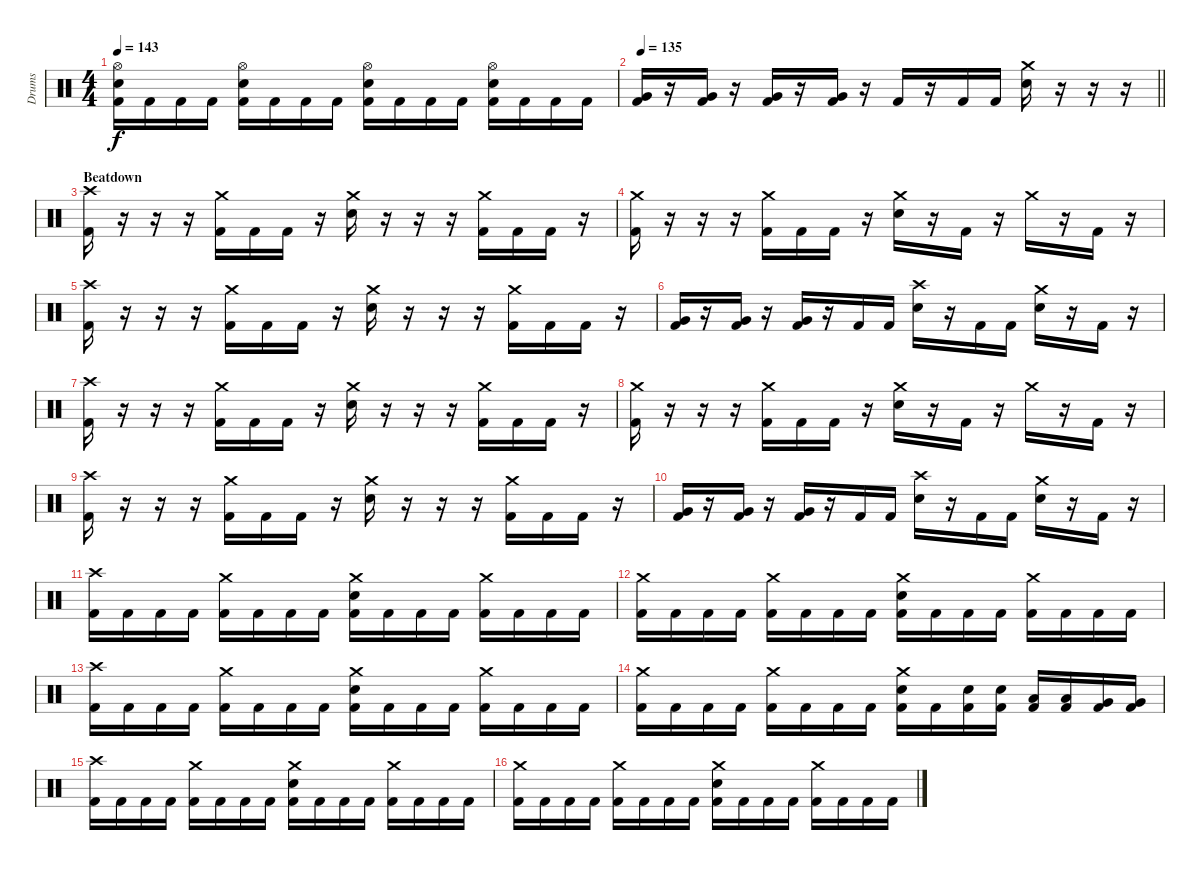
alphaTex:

\track ("Drums" "Drums") {instrument percussion}
\staff {score}
\articulation defaults
\ts (4 4)
\tempo 143
\clef neutral
\ks c
("Hi-Hat (open)" "Electric Snare (hit)" "Kick (hit) 2").16{dy f} "Kick (hit) 2".16 "Kick (hit) 2".16 "Kick (hit) 2".16 ("Hi-Hat (open)" "Electric Snare (hit)" "Kick (hit) 2").16 "Kick (hit) 2".16 "Kick (hit) 2".16 "Kick (hit) 2".16 ("Hi-Hat (open)" "Electric Snare (hit)" "Kick (hit) 2").16 "Kick (hit) 2".16 "Kick (hit) 2".16 "Kick (hit) 2".16 ("Hi-Hat (open)" "Electric Snare (hit)" "Kick (hit) 2").16 "Kick (hit) 2".16 "Kick (hit) 2".16 "Kick (hit) 2".16 |
\tempo 135
\barLineRight lightlight
("Very Low Tom (hit)" "Kick (hit) 2").16 r.16 ("Very Low Tom (hit)" "Kick (hit) 2").16 r.16 ("Very Low Tom (hit)" "Kick (hit) 2").16 r.16 ("Very Low Tom (hit)" "Kick (hit) 2").16 r.16 "Kick (hit) 2".16 r.16 "Kick (hit) 2".16 "Kick (hit) 2".16 ("Crash medium (hit)" "Electric Snare (hit)").16 r.16 r.16 r.16 |
\section ("" "Beatdown")
("Crash high (hit)" "Kick (hit) 2").16 r.16 r.16 r.16 ("Crash medium (hit)" "Kick (hit) 2").16 "Kick (hit) 2".16 "Kick (hit) 2".16 r.16 ("Crash medium (hit)" "Electric Snare (hit)").16 r.16 r.16 r.16 ("Crash medium (hit)" "Kick (hit) 2").16 "Kick (hit) 2".16 "Kick (hit) 2".16 r.16 |
("Crash medium (hit)" "Kick (hit) 2").16 r.16 r.16 r.16 ("Crash medium (hit)" "Kick (hit) 2").16 "Kick (hit) 2".16 "Kick (hit) 2".16 r.16 ("Crash medium (hit)" "Electric Snare (hit)").16 r.16 "Kick (hit) 2".16 r.16 "Crash medium (hit)".16 r.16 "Kick (hit) 2".16 r.16 |
("Crash high (hit)" "Kick (hit) 2").16 r.16 r.16 r.16 ("Crash medium (hit)" "Kick (hit) 2").16 "Kick (hit) 2".16 "Kick (hit) 2".16 r.16 ("Crash medium (hit)" "Electric Snare (hit)").16 r.16 r.16 r.16 ("Crash medium (hit)" "Kick (hit) 2").16 "Kick (hit) 2".16 "Kick (hit) 2".16 r.16 |
("Very Low Tom (hit)" "Kick (hit) 2").16 r.16 ("Very Low Tom (hit)" "Kick (hit) 2").16 r.16 ("Very Low Tom (hit)" "Kick (hit) 2").16 r.16 "Kick (hit) 2".16 "Kick (hit) 2".16 ("Crash high (hit)" "Electric Snare (hit)").16 r.16 "Kick (hit) 2".16 "Kick (hit) 2".16 ("Crash medium (hit)" "Electric Snare (hit)").16 r.16 "Kick (hit) 2".16 r.16 |
("Crash high (hit)" "Kick (hit) 2").16 r.16 r.16 r.16 ("Crash medium (hit)" "Kick (hit) 2").16 "Kick (hit) 2".16 "Kick (hit) 2".16 r.16 ("Crash medium (hit)" "Electric Snare (hit)").16 r.16 r.16 r.16 ("Crash medium (hit)" "Kick (hit) 2").16 "Kick (hit) 2".16 "Kick (hit) 2".16 r.16 |
("Crash medium (hit)" "Kick (hit) 2").16 r.16 r.16 r.16 ("Crash medium (hit)" "Kick (hit) 2").16 "Kick (hit) 2".16 "Kick (hit) 2".16 r.16 ("Crash medium (hit)" "Electric Snare (hit)").16 r.16 "Kick (hit) 2".16 r.16 "Crash medium (hit)".16 r.16 "Kick (hit) 2".16 r.16 |
("Crash high (hit)" "Kick (hit) 2").16 r.16 r.16 r.16 ("Crash medium (hit)" "Kick (hit) 2").16 "Kick (hit) 2".16 "Kick (hit) 2".16 r.16 ("Crash medium (hit)" "Electric Snare (hit)").16 r.16 r.16 r.16 ("Crash medium (hit)" "Kick (hit) 2").16 "Kick (hit) 2".16 "Kick (hit) 2".16 r.16 |
("Very Low Tom (hit)" "Kick (hit) 2").16 r.16 ("Very Low Tom (hit)" "Kick (hit) 2").16 r.16 ("Very Low Tom (hit)" "Kick (hit) 2").16 r.16 "Kick (hit) 2".16 "Kick (hit) 2".16 ("Crash high (hit)" "Electric Snare (hit)").16 r.16 "Kick (hit) 2".16 "Kick (hit) 2".16 ("Crash medium (hit)" "Electric Snare (hit)").16 r.16 "Kick (hit) 2".16 r.16 |
("Crash high (hit)" "Kick (hit) 2").16 "Kick (hit) 2".16 "Kick (hit) 2".16 "Kick (hit) 2".16 ("Crash medium (hit)" "Kick (hit) 2").16 "Kick (hit) 2".16 "Kick (hit) 2".16 "Kick (hit) 2".16 ("Crash medium (hit)" "Electric Snare (hit)" "Kick (hit) 2").16 "Kick (hit) 2".16 "Kick (hit) 2".16 "Kick (hit) 2".16 ("Crash medium (hit)" "Kick (hit) 2").16 "Kick (hit) 2".16 "Kick (hit) 2".16 "Kick (hit) 2".16 |
("Crash medium (hit)" "Kick (hit) 2").16 "Kick (hit) 2".16 "Kick (hit) 2".16 "Kick (hit) 2".16 ("Crash medium (hit)" "Kick (hit) 2").16 "Kick (hit) 2".16 "Kick (hit) 2".16 "Kick (hit) 2".16 ("Crash medium (hit)" "Electric Snare (hit)" "Kick (hit) 2").16 "Kick (hit) 2".16 "Kick (hit) 2".16 "Kick (hit) 2".16 ("Crash medium (hit)" "Kick (hit) 2").16 "Kick (hit) 2".16 "Kick (hit) 2".16 "Kick (hit) 2".16 |
("Crash high (hit)" "Kick (hit) 2").16 "Kick (hit) 2".16 "Kick (hit) 2".16 "Kick (hit) 2".16 ("Crash medium (hit)" "Kick (hit) 2").16 "Kick (hit) 2".16 "Kick (hit) 2".16 "Kick (hit) 2".16 ("Crash medium (hit)" "Electric Snare (hit)" "Kick (hit) 2").16 "Kick (hit) 2".16 "Kick (hit) 2".16 "Kick (hit) 2".16 ("Crash medium (hit)" "Kick (hit) 2").16 "Kick (hit) 2".16 "Kick (hit) 2".16 "Kick (hit) 2".16 |
("Crash medium (hit)" "Kick (hit) 2").16 "Kick (hit) 2".16 "Kick (hit) 2".16 "Kick (hit) 2".16 ("Crash medium (hit)" "Kick (hit) 2").16 "Kick (hit) 2".16 "Kick (hit) 2".16 "Kick (hit) 2".16 ("Crash medium (hit)" "Electric Snare (hit)" "Kick (hit) 2").16 "Kick (hit) 2".16 ("Electric Snare (hit)" "Kick (hit) 2").16 ("Electric Snare (hit)" "Kick (hit) 2").16 ("Low Tom (hit)" "Kick (hit) 2").16 ("Low Tom (hit)" "Kick (hit) 2").16 ("Very Low Tom (hit)" "Kick (hit) 2").16 ("Very Low Tom (hit)" "Kick (hit) 2").16 |
("Crash high (hit)" "Kick (hit) 2").16 "Kick (hit) 2".16 "Kick (hit) 2".16 "Kick (hit) 2".16 ("Crash medium (hit)" "Kick (hit) 2").16 "Kick (hit) 2".16 "Kick (hit) 2".16 "Kick (hit) 2".16 ("Crash medium (hit)" "Electric Snare (hit)" "Kick (hit) 2").16 "Kick (hit) 2".16 "Kick (hit) 2".16 "Kick (hit) 2".16 ("Crash medium (hit)" "Kick (hit) 2").16 "Kick (hit) 2".16 "Kick (hit) 2".16 "Kick (hit) 2".16 |
("Crash medium (hit)" "Kick (hit) 2").16 "Kick (hit) 2".16 "Kick (hit) 2".16 "Kick (hit) 2".16 ("Crash medium (hit)" "Kick (hit) 2").16 "Kick (hit) 2".16 "Kick (hit) 2".16 "Kick (hit) 2".16 ("Crash medium (hit)" "Electric Snare (hit)" "Kick (hit) 2").16 "Kick (hit) 2".16 "Kick (hit) 2".16 "Kick (hit) 2".16 ("Crash medium (hit)" "Kick (hit) 2").16 "Kick (hit) 2".16 "Kick (hit) 2".16 "Kick (hit) 2".16
